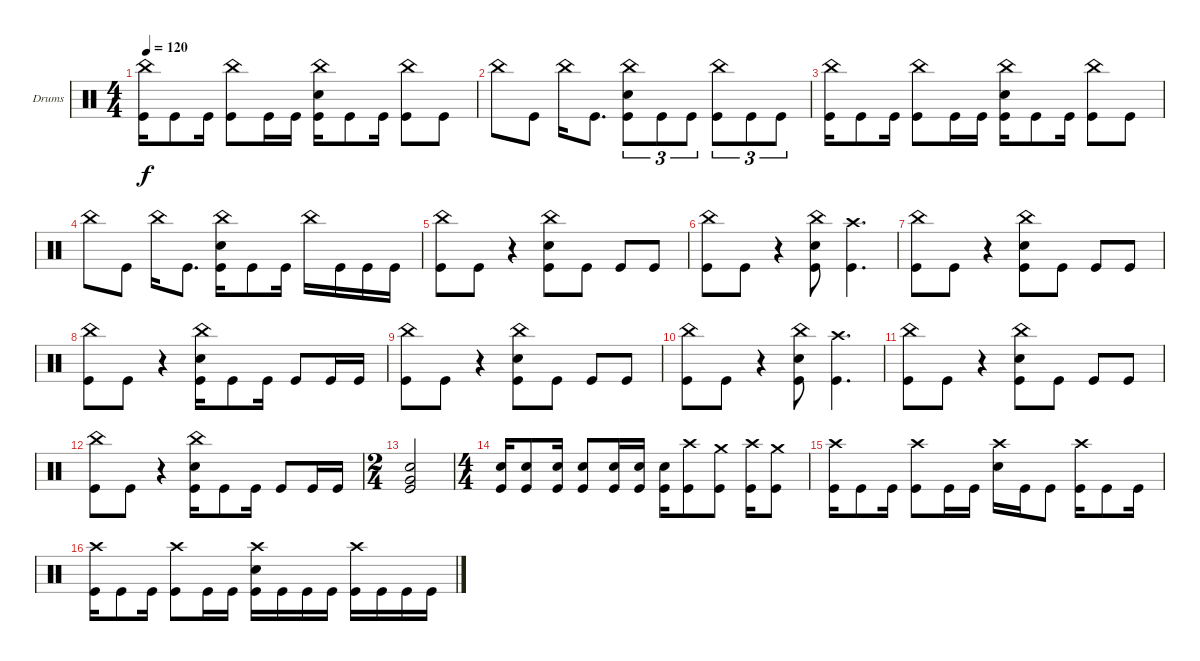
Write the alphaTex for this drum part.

\defaultSystemsLayout 4
\bracketExtendMode groupsimilarinstruments
\firstSystemTrackNameOrientation horizontal
\otherSystemsTrackNameOrientation horizontal
\track ("Drumkit" "Drums") {instrument percussion}
\staff {score}
\articulation defaults
\ts (4 4)
\tempo 120
\clef neutral
\scale
0.333333
\ks c
("China (hit)" "Kick (hit)").16{dy f} "Kick (hit)".8 "Kick (hit)".16 ("China (hit)" "Kick (hit)").8 "Kick (hit)".16 "Kick (hit)".16 ("China (hit)" "Snare (hit) 2" "Kick (hit)").16 "Kick (hit)".8 "Kick (hit)".16 ("China (hit)" "Kick (hit)").8 "Kick (hit)".8 |
\scale
0.333333 "China (hit)".8 "Kick (hit)".8 "China (hit)".16 "Kick (hit)".8{d} ("China (hit)" "Snare (hit) 2" "Kick (hit)").8{tu (3 2)} "Kick (hit)".8{tu (3 2)} "Kick (hit)".8{tu (3 2)} ("China (hit)" "Kick (hit)").8{tu (3 2)} "Kick (hit)".8{tu (3 2)} "Kick (hit)".8{tu (3 2)} |
\scale
0.333333 ("China (hit)" "Kick (hit)").16 "Kick (hit)".8 "Kick (hit)".16 ("China (hit)" "Kick (hit)").8 "Kick (hit)".16 "Kick (hit)".16 ("China (hit)" "Snare (hit) 2" "Kick (hit)").16 "Kick (hit)".8 "Kick (hit)".16 ("China (hit)" "Kick (hit)").8 "Kick (hit)".8 |
\scale
0.333333 "China (hit)".8 "Kick (hit)".8 "China (hit)".16 "Kick (hit)".8{d} ("China (hit)" "Snare (hit) 2" "Kick (hit)").16 "Kick (hit)".8 "Kick (hit)".16 "China (hit)".16 "Kick (hit)".16 "Kick (hit)".16 "Kick (hit)".16 |
\scale
0.333333 ("China (hit)" "Kick (hit)").8 "Kick (hit)".8 r.4 ("China (hit)" "Snare (hit) 2" "Kick (hit)").8 "Kick (hit)".8 "Kick (hit)".8 "Kick (hit)".8 |
\scale
0.333333 ("China (hit)" "Kick (hit)").8 "Kick (hit)".8 r.4 ("China (hit)" "Snare (hit) 2" "Kick (hit)").8 ("Crash high (hit)" "Kick (hit)").4{d} |
\scale
0.333333 ("China (hit)" "Kick (hit)").8 "Kick (hit)".8 r.4 ("China (hit)" "Snare (hit) 2" "Kick (hit)").8 "Kick (hit)".8 "Kick (hit)".8 "Kick (hit)".8 |
\scale
0.333333 ("China (hit)" "Kick (hit)").8 "Kick (hit)".8 r.4 ("China (hit)" "Snare (hit) 2" "Kick (hit)").16 "Kick (hit)".8 "Kick (hit)".16 "Kick (hit)".8 "Kick (hit)".16 "Kick (hit)".16 |
\scale
0.333333 ("China (hit)" "Kick (hit)").8 "Kick (hit)".8 r.4 ("China (hit)" "Snare (hit) 2" "Kick (hit)").8 "Kick (hit)".8 "Kick (hit)".8 "Kick (hit)".8 |
\scale
0.333333 ("China (hit)" "Kick (hit)").8 "Kick (hit)".8 r.4 ("China (hit)" "Snare (hit) 2" "Kick (hit)").8 ("Crash high (hit)" "Kick (hit)").4{d} |
\scale
0.333333 ("China (hit)" "Kick (hit)").8 "Kick (hit)".8 r.4 ("China (hit)" "Snare (hit) 2" "Kick (hit)").8 "Kick (hit)".8 "Kick (hit)".8 "Kick (hit)".8 |
\scale
0.333333 ("China (hit)" "Kick (hit)").8 "Kick (hit)".8 r.4 ("China (hit)" "Snare (hit) 2" "Kick (hit)").16 "Kick (hit)".8 "Kick (hit)".16 "Kick (hit)".8 "Kick (hit)".16 "Kick (hit)".16 |
\ts (2 4)
\scale
0.333333 ("Very Low Tom (hit)" "Snare (hit) 2" "Kick (hit)").2 |
\ts (4 4)
\scale
0.333333 ("Snare (hit) 2" "Kick (hit)").16 ("Snare (hit) 2" "Kick (hit)").8 ("Snare (hit) 2" "Kick (hit)").16 ("Snare (hit) 2" "Kick (hit)").8 ("Snare (hit) 2" "Kick (hit)").16 ("Snare (hit) 2" "Kick (hit)").16 ("Snare (hit) 2" "Kick (hit)").16 ("Crash high (hit)" "Kick (hit)").8 ("Crash medium (hit)" "Kick (hit)").8 ("Crash high (hit)" "Kick (hit)").16 ("Crash medium (hit)" "Kick (hit)").8 |
\scale
0.333333 ("Crash high (hit)" "Kick (hit)").16 "Kick (hit)".8 "Kick (hit)".16 ("Crash high (hit)" "Kick (hit)").8 "Kick (hit)".16 "Kick (hit)".16 ("Crash high (hit)" "Snare (hit) 2").16 "Kick (hit)".16 "Kick (hit)".8 ("Crash high (hit)" "Kick (hit)").16 "Kick (hit)".8 "Kick (hit)".16 |
\scale
0.333333 ("Crash high (hit)" "Kick (hit)").16 "Kick (hit)".8 "Kick (hit)".16 ("Crash high (hit)" "Kick (hit)").8 "Kick (hit)".16 "Kick (hit)".16 ("Crash high (hit)" "Snare (hit) 2" "Kick (hit)").16 "Kick (hit)".16 "Kick (hit)".16 "Kick (hit)".16 ("Crash high (hit)" "Kick (hit)").16 "Kick (hit)".16 "Kick (hit)".16 "Kick (hit)".16
